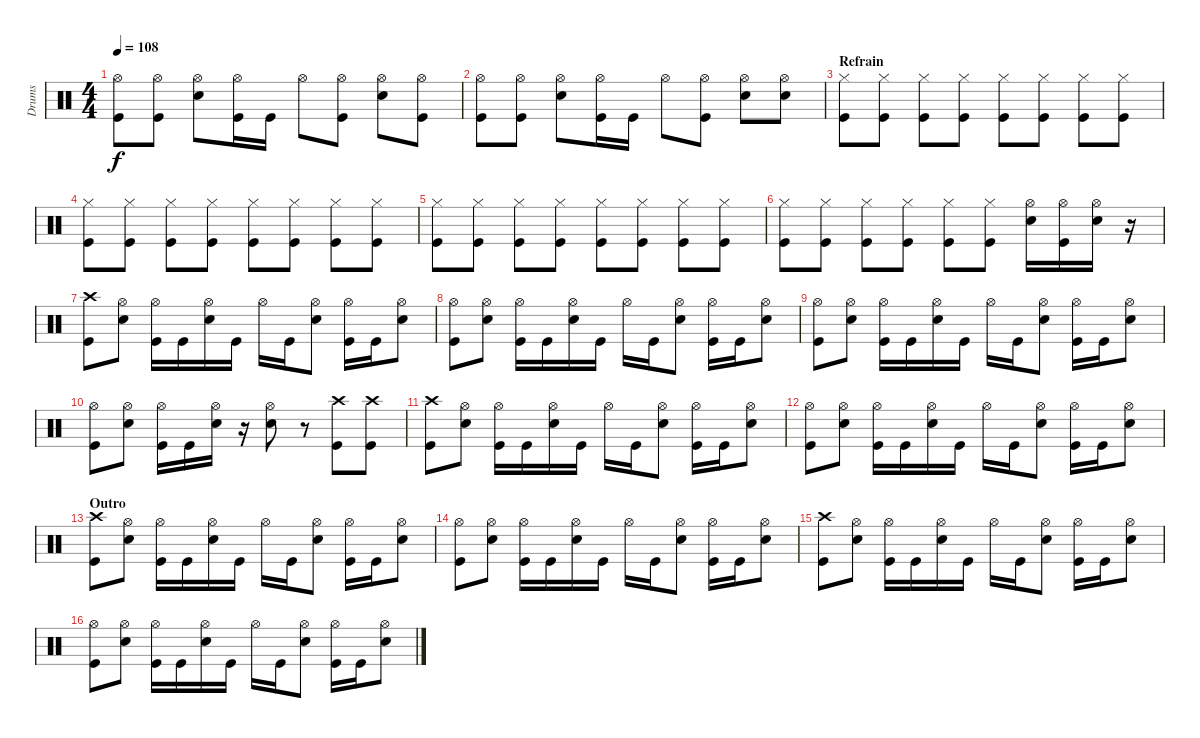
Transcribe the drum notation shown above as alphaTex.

\track ("Drums" "Drums") {instrument percussion}
\staff {score}
\articulation defaults
\ts (4 4)
\tempo 108
\clef neutral
\ks c
("Hi-Hat (open)" "Kick (hit)").8{dy f} ("Hi-Hat (open)" "Kick (hit)").8 ("Hi-Hat (open)" "Snare (hit) 2").8 ("Hi-Hat (open)" "Kick (hit)").16 "Kick (hit)".16 "Hi-Hat (open)".8 ("Hi-Hat (open)" "Kick (hit)").8 ("Hi-Hat (open)" "Snare (hit) 2").8 ("Hi-Hat (open)" "Kick (hit)").8 |
("Hi-Hat (open)" "Kick (hit)").8 ("Hi-Hat (open)" "Kick (hit)").8 ("Hi-Hat (open)" "Snare (hit) 2").8 ("Hi-Hat (open)" "Kick (hit)").16 "Kick (hit)".16 "Hi-Hat (open)".8 ("Hi-Hat (open)" "Kick (hit)").8 ("Hi-Hat (open)" "Snare (hit) 2").8 ("Hi-Hat (open)" "Snare (hit) 2").8 |
\section ("" "Refrain")
("Hi-Hat (closed)" "Kick (hit)").8 ("Hi-Hat (closed)" "Kick (hit)").8 ("Hi-Hat (closed)" "Kick (hit)").8 ("Hi-Hat (closed)" "Kick (hit)").8 ("Hi-Hat (closed)" "Kick (hit)").8 ("Hi-Hat (closed)" "Kick (hit)").8 ("Hi-Hat (closed)" "Kick (hit)").8 ("Hi-Hat (closed)" "Kick (hit)").8 |
("Hi-Hat (closed)" "Kick (hit)").8 ("Hi-Hat (closed)" "Kick (hit)").8 ("Hi-Hat (closed)" "Kick (hit)").8 ("Hi-Hat (closed)" "Kick (hit)").8 ("Hi-Hat (closed)" "Kick (hit)").8 ("Hi-Hat (closed)" "Kick (hit)").8 ("Hi-Hat (closed)" "Kick (hit)").8 ("Hi-Hat (closed)" "Kick (hit)").8 |
("Hi-Hat (closed)" "Kick (hit)").8 ("Hi-Hat (closed)" "Kick (hit)").8 ("Hi-Hat (closed)" "Kick (hit)").8 ("Hi-Hat (closed)" "Kick (hit)").8 ("Hi-Hat (closed)" "Kick (hit)").8 ("Hi-Hat (closed)" "Kick (hit)").8 ("Hi-Hat (closed)" "Kick (hit)").8 ("Hi-Hat (closed)" "Kick (hit)").8 |
("Hi-Hat (closed)" "Kick (hit)").8 ("Hi-Hat (closed)" "Kick (hit)").8 ("Hi-Hat (closed)" "Kick (hit)").8 ("Hi-Hat (closed)" "Kick (hit)").8 ("Hi-Hat (closed)" "Kick (hit)").8 ("Hi-Hat (closed)" "Kick (hit)").8 ("Hi-Hat (open)" "Snare (hit) 2").16 ("Hi-Hat (open)" "Kick (hit)").16 ("Hi-Hat (open)" "Snare (hit) 2").16 r.16 |
("Crash high (hit)" "Kick (hit)").8 ("Hi-Hat (open)" "Snare (hit) 2").8 ("Hi-Hat (open)" "Kick (hit)").16 "Kick (hit)".16 ("Hi-Hat (open)" "Snare (hit) 2").16 "Kick (hit)".16 "Hi-Hat (open)".16 "Kick (hit)".16 ("Hi-Hat (open)" "Snare (hit) 2").8 ("Hi-Hat (open)" "Kick (hit)").16 "Kick (hit)".16 ("Hi-Hat (open)" "Snare (hit) 2").8 |
("Hi-Hat (open)" "Kick (hit)").8 ("Hi-Hat (open)" "Snare (hit) 2").8 ("Hi-Hat (open)" "Kick (hit)").16 "Kick (hit)".16 ("Hi-Hat (open)" "Snare (hit) 2").16 "Kick (hit)".16 "Hi-Hat (open)".16 "Kick (hit)".16 ("Hi-Hat (open)" "Snare (hit) 2").8 ("Hi-Hat (open)" "Kick (hit)").16 "Kick (hit)".16 ("Hi-Hat (open)" "Snare (hit) 2").8 |
("Hi-Hat (open)" "Kick (hit)").8 ("Hi-Hat (open)" "Snare (hit) 2").8 ("Hi-Hat (open)" "Kick (hit)").16 "Kick (hit)".16 ("Hi-Hat (open)" "Snare (hit) 2").16 "Kick (hit)".16 "Hi-Hat (open)".16 "Kick (hit)".16 ("Hi-Hat (open)" "Snare (hit) 2").8 ("Hi-Hat (open)" "Kick (hit)").16 "Kick (hit)".16 ("Hi-Hat (open)" "Snare (hit) 2").8 |
("Hi-Hat (open)" "Kick (hit)").8 ("Hi-Hat (open)" "Snare (hit) 2").8 ("Hi-Hat (open)" "Kick (hit)").16 "Kick (hit)".16 ("Hi-Hat (open)" "Snare (hit) 2").16 r.16 ("Hi-Hat (open)" "Snare (hit) 2").8 r.8 ("Crash high (hit)" "Kick (hit)").8 ("Crash high (hit)" "Kick (hit)").8 |
("Crash high (hit)" "Kick (hit)").8 ("Hi-Hat (open)" "Snare (hit) 2").8 ("Hi-Hat (open)" "Kick (hit)").16 "Kick (hit)".16 ("Hi-Hat (open)" "Snare (hit) 2").16 "Kick (hit)".16 "Hi-Hat (open)".16 "Kick (hit)".16 ("Hi-Hat (open)" "Snare (hit) 2").8 ("Hi-Hat (open)" "Kick (hit)").16 "Kick (hit)".16 ("Hi-Hat (open)" "Snare (hit) 2").8 |
("Hi-Hat (open)" "Kick (hit)").8 ("Hi-Hat (open)" "Snare (hit) 2").8 ("Hi-Hat (open)" "Kick (hit)").16 "Kick (hit)".16 ("Hi-Hat (open)" "Snare (hit) 2").16 "Kick (hit)".16 "Hi-Hat (open)".16 "Kick (hit)".16 ("Hi-Hat (open)" "Snare (hit) 2").8 ("Hi-Hat (open)" "Kick (hit)").16 "Kick (hit)".16 ("Hi-Hat (open)" "Snare (hit) 2").8 |
\section ("" "Outro")
("Crash high (hit)" "Kick (hit)").8 ("Hi-Hat (open)" "Snare (hit) 2").8 ("Hi-Hat (open)" "Kick (hit)").16 "Kick (hit)".16 ("Hi-Hat (open)" "Snare (hit) 2").16 "Kick (hit)".16 "Hi-Hat (open)".16 "Kick (hit)".16 ("Hi-Hat (open)" "Snare (hit) 2").8 ("Hi-Hat (open)" "Kick (hit)").16 "Kick (hit)".16 ("Hi-Hat (open)" "Snare (hit) 2").8 |
("Hi-Hat (open)" "Kick (hit)").8 ("Hi-Hat (open)" "Snare (hit) 2").8 ("Hi-Hat (open)" "Kick (hit)").16 "Kick (hit)".16 ("Hi-Hat (open)" "Snare (hit) 2").16 "Kick (hit)".16 "Hi-Hat (open)".16 "Kick (hit)".16 ("Hi-Hat (open)" "Snare (hit) 2").8 ("Hi-Hat (open)" "Kick (hit)").16 "Kick (hit)".16 ("Hi-Hat (open)" "Snare (hit) 2").8 |
("Crash high (hit)" "Kick (hit)").8 ("Hi-Hat (open)" "Snare (hit) 2").8 ("Hi-Hat (open)" "Kick (hit)").16 "Kick (hit)".16 ("Hi-Hat (open)" "Snare (hit) 2").16 "Kick (hit)".16 "Hi-Hat (open)".16 "Kick (hit)".16 ("Hi-Hat (open)" "Snare (hit) 2").8 ("Hi-Hat (open)" "Kick (hit)").16 "Kick (hit)".16 ("Hi-Hat (open)" "Snare (hit) 2").8 |
("Hi-Hat (open)" "Kick (hit)").8 ("Hi-Hat (open)" "Snare (hit) 2").8 ("Hi-Hat (open)" "Kick (hit)").16 "Kick (hit)".16 ("Hi-Hat (open)" "Snare (hit) 2").16 "Kick (hit)".16 "Hi-Hat (open)".16 "Kick (hit)".16 ("Hi-Hat (open)" "Snare (hit) 2").8 ("Hi-Hat (open)" "Kick (hit)").16 "Kick (hit)".16 ("Hi-Hat (open)" "Snare (hit) 2").8
